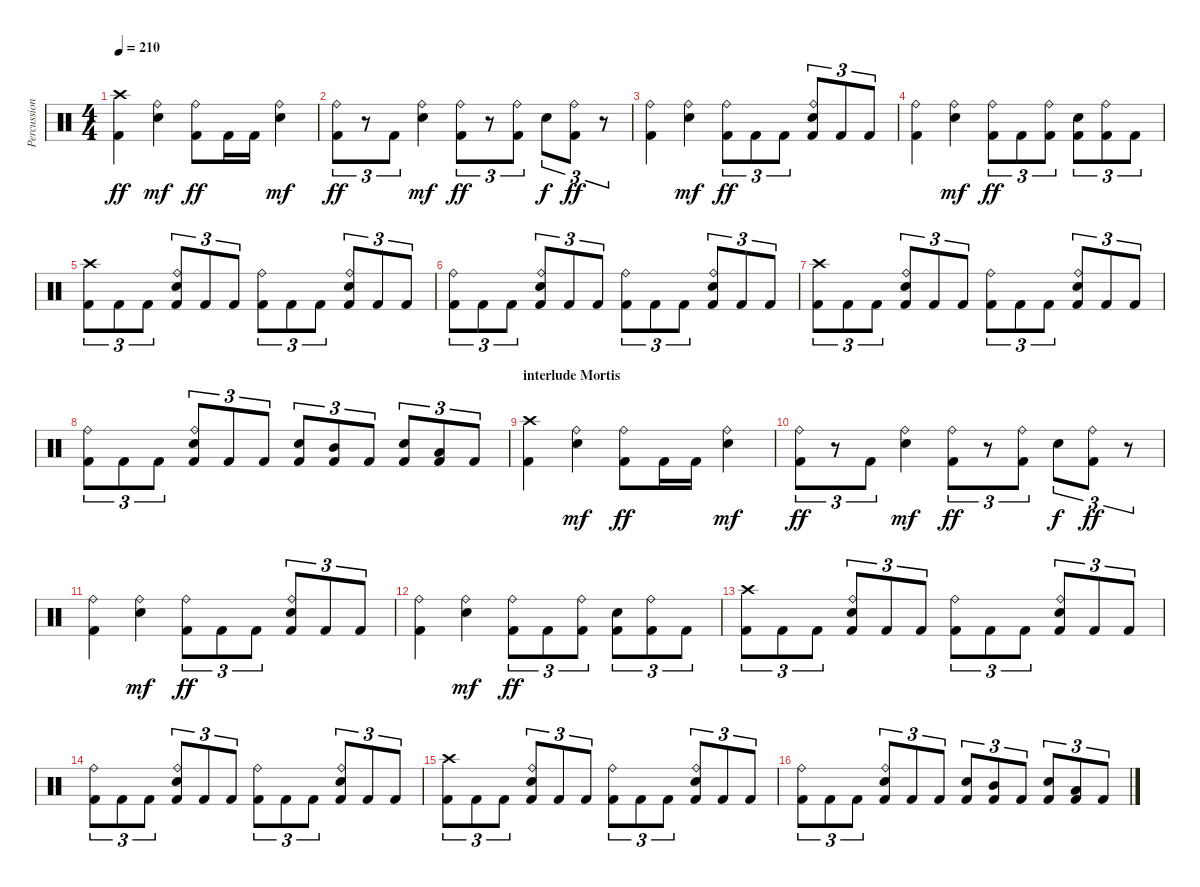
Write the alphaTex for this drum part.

\track ("Percussion" "Percussion") {instrument percussion}
\staff {score}
\articulation defaults
\ts (4 4)
\tempo 210
\clef neutral
\ks c
("Crash high (hit)" "Kick (hit) 2").4{dy ff} ("Ride (bell)" "Snare (hit) 2").4{dy mf} ("Ride (bell)" "Kick (hit) 2").8{dy ff} "Kick (hit) 2".16 "Kick (hit) 2".16 ("Ride (bell)" "Snare (hit) 2").4{dy mf} |
("Ride (bell)" "Kick (hit) 2").8{tu (3 2) dy ff} r.8{tu (3 2)} "Kick (hit) 2".8{tu (3 2)} ("Ride (bell)" "Snare (hit) 2").4{dy mf} ("Ride (bell)" "Kick (hit) 2").8{tu (3 2) dy ff} r.8{tu (3 2)} ("Ride (bell)" "Kick (hit) 2").8{tu (3 2)} "Snare (hit) 2".8{tu (3 2) dy f} ("Ride (bell)" "Kick (hit) 2").8{tu (3 2) dy ff} r.8{tu (3 2)} |
("Ride (bell)" "Kick (hit) 2").4 ("Ride (bell)" "Snare (hit) 2").4{dy mf} ("Ride (bell)" "Kick (hit) 2").8{tu (3 2) dy ff} "Kick (hit) 2".8{tu (3 2)} "Kick (hit) 2".8{tu (3 2)} ("Ride (bell)" "Snare (hit) 2" "Kick (hit) 2").8{tu (3 2)} "Kick (hit) 2".8{tu (3 2)} "Kick (hit) 2".8{tu (3 2)} |
("Ride (bell)" "Kick (hit) 2").4 ("Ride (bell)" "Snare (hit) 2").4{dy mf} ("Ride (bell)" "Kick (hit) 2").8{tu (3 2) dy ff} "Kick (hit) 2".8{tu (3 2)} ("Ride (bell)" "Kick (hit) 2").8{tu (3 2)} ("Snare (hit) 2" "Kick (hit) 2").8{tu (3 2)} ("Ride (bell)" "Kick (hit) 2").8{tu (3 2)} "Kick (hit) 2".8{tu (3 2)} |
("Crash high (hit)" "Kick (hit) 2").8{tu (3 2)} "Kick (hit) 2".8{tu (3 2)} "Kick (hit) 2".8{tu (3 2)} ("Ride (bell)" "Snare (hit) 2" "Kick (hit) 2").8{tu (3 2)} "Kick (hit) 2".8{tu (3 2)} "Kick (hit) 2".8{tu (3 2)} ("Ride (bell)" "Kick (hit) 2").8{tu (3 2)} "Kick (hit) 2".8{tu (3 2)} "Kick (hit) 2".8{tu (3 2)} ("Ride (bell)" "Snare (hit) 2" "Kick (hit) 2").8{tu (3 2)} "Kick (hit) 2".8{tu (3 2)} "Kick (hit) 2".8{tu (3 2)} |
("Ride (bell)" "Kick (hit) 2").8{tu (3 2)} "Kick (hit) 2".8{tu (3 2)} "Kick (hit) 2".8{tu (3 2)} ("Ride (bell)" "Snare (hit) 2" "Kick (hit) 2").8{tu (3 2)} "Kick (hit) 2".8{tu (3 2)} "Kick (hit) 2".8{tu (3 2)} ("Ride (bell)" "Kick (hit) 2").8{tu (3 2)} "Kick (hit) 2".8{tu (3 2)} "Kick (hit) 2".8{tu (3 2)} ("Ride (bell)" "Snare (hit) 2" "Kick (hit) 2").8{tu (3 2)} "Kick (hit) 2".8{tu (3 2)} "Kick (hit) 2".8{tu (3 2)} |
("Crash high (hit)" "Kick (hit) 2").8{tu (3 2)} "Kick (hit) 2".8{tu (3 2)} "Kick (hit) 2".8{tu (3 2)} ("Ride (bell)" "Snare (hit) 2" "Kick (hit) 2").8{tu (3 2)} "Kick (hit) 2".8{tu (3 2)} "Kick (hit) 2".8{tu (3 2)} ("Ride (bell)" "Kick (hit) 2").8{tu (3 2)} "Kick (hit) 2".8{tu (3 2)} "Kick (hit) 2".8{tu (3 2)} ("Ride (bell)" "Snare (hit) 2" "Kick (hit) 2").8{tu (3 2)} "Kick (hit) 2".8{tu (3 2)} "Kick (hit) 2".8{tu (3 2)} |
("Ride (bell)" "Kick (hit) 2").8{tu (3 2)} "Kick (hit) 2".8{tu (3 2)} "Kick (hit) 2".8{tu (3 2)} ("Ride (bell)" "Snare (hit) 2" "Kick (hit) 2").8{tu (3 2)} "Kick (hit) 2".8{tu (3 2)} "Kick (hit) 2".8{tu (3 2)} ("Snare (hit) 2" "Kick (hit) 2").8{tu (3 2)} ("Mid Tom (hit)" "Kick (hit) 2").8{tu (3 2)} "Kick (hit) 2".8{tu (3 2)} ("Snare (hit) 2" "Kick (hit) 2").8{tu (3 2)} ("Low Tom (hit)" "Kick (hit) 2").8{tu (3 2)} "Kick (hit) 2".8{tu (3 2)} |
\section ("" "interlude Mortis")
("Crash high (hit)" "Kick (hit) 2").4 ("Ride (bell)" "Snare (hit) 2").4{dy mf} ("Ride (bell)" "Kick (hit) 2").8{dy ff} "Kick (hit) 2".16 "Kick (hit) 2".16 ("Ride (bell)" "Snare (hit) 2").4{dy mf} |
("Ride (bell)" "Kick (hit) 2").8{tu (3 2) dy ff} r.8{tu (3 2)} "Kick (hit) 2".8{tu (3 2)} ("Ride (bell)" "Snare (hit) 2").4{dy mf} ("Ride (bell)" "Kick (hit) 2").8{tu (3 2) dy ff} r.8{tu (3 2)} ("Ride (bell)" "Kick (hit) 2").8{tu (3 2)} "Snare (hit) 2".8{tu (3 2) dy f} ("Ride (bell)" "Kick (hit) 2").8{tu (3 2) dy ff} r.8{tu (3 2)} |
("Ride (bell)" "Kick (hit) 2").4 ("Ride (bell)" "Snare (hit) 2").4{dy mf} ("Ride (bell)" "Kick (hit) 2").8{tu (3 2) dy ff} "Kick (hit) 2".8{tu (3 2)} "Kick (hit) 2".8{tu (3 2)} ("Ride (bell)" "Snare (hit) 2" "Kick (hit) 2").8{tu (3 2)} "Kick (hit) 2".8{tu (3 2)} "Kick (hit) 2".8{tu (3 2)} |
("Ride (bell)" "Kick (hit) 2").4 ("Ride (bell)" "Snare (hit) 2").4{dy mf} ("Ride (bell)" "Kick (hit) 2").8{tu (3 2) dy ff} "Kick (hit) 2".8{tu (3 2)} ("Ride (bell)" "Kick (hit) 2").8{tu (3 2)} ("Snare (hit) 2" "Kick (hit) 2").8{tu (3 2)} ("Ride (bell)" "Kick (hit) 2").8{tu (3 2)} "Kick (hit) 2".8{tu (3 2)} |
("Crash high (hit)" "Kick (hit) 2").8{tu (3 2)} "Kick (hit) 2".8{tu (3 2)} "Kick (hit) 2".8{tu (3 2)} ("Ride (bell)" "Snare (hit) 2" "Kick (hit) 2").8{tu (3 2)} "Kick (hit) 2".8{tu (3 2)} "Kick (hit) 2".8{tu (3 2)} ("Ride (bell)" "Kick (hit) 2").8{tu (3 2)} "Kick (hit) 2".8{tu (3 2)} "Kick (hit) 2".8{tu (3 2)} ("Ride (bell)" "Snare (hit) 2" "Kick (hit) 2").8{tu (3 2)} "Kick (hit) 2".8{tu (3 2)} "Kick (hit) 2".8{tu (3 2)} |
("Ride (bell)" "Kick (hit) 2").8{tu (3 2)} "Kick (hit) 2".8{tu (3 2)} "Kick (hit) 2".8{tu (3 2)} ("Ride (bell)" "Snare (hit) 2" "Kick (hit) 2").8{tu (3 2)} "Kick (hit) 2".8{tu (3 2)} "Kick (hit) 2".8{tu (3 2)} ("Ride (bell)" "Kick (hit) 2").8{tu (3 2)} "Kick (hit) 2".8{tu (3 2)} "Kick (hit) 2".8{tu (3 2)} ("Ride (bell)" "Snare (hit) 2" "Kick (hit) 2").8{tu (3 2)} "Kick (hit) 2".8{tu (3 2)} "Kick (hit) 2".8{tu (3 2)} |
("Crash high (hit)" "Kick (hit) 2").8{tu (3 2)} "Kick (hit) 2".8{tu (3 2)} "Kick (hit) 2".8{tu (3 2)} ("Ride (bell)" "Snare (hit) 2" "Kick (hit) 2").8{tu (3 2)} "Kick (hit) 2".8{tu (3 2)} "Kick (hit) 2".8{tu (3 2)} ("Ride (bell)" "Kick (hit) 2").8{tu (3 2)} "Kick (hit) 2".8{tu (3 2)} "Kick (hit) 2".8{tu (3 2)} ("Ride (bell)" "Snare (hit) 2" "Kick (hit) 2").8{tu (3 2)} "Kick (hit) 2".8{tu (3 2)} "Kick (hit) 2".8{tu (3 2)} |
("Ride (bell)" "Kick (hit) 2").8{tu (3 2)} "Kick (hit) 2".8{tu (3 2)} "Kick (hit) 2".8{tu (3 2)} ("Ride (bell)" "Snare (hit) 2" "Kick (hit) 2").8{tu (3 2)} "Kick (hit) 2".8{tu (3 2)} "Kick (hit) 2".8{tu (3 2)} ("Snare (hit) 2" "Kick (hit) 2").8{tu (3 2)} ("Mid Tom (hit)" "Kick (hit) 2").8{tu (3 2)} "Kick (hit) 2".8{tu (3 2)} ("Snare (hit) 2" "Kick (hit) 2").8{tu (3 2)} ("Low Tom (hit)" "Kick (hit) 2").8{tu (3 2)} "Kick (hit) 2".8{tu (3 2)}
